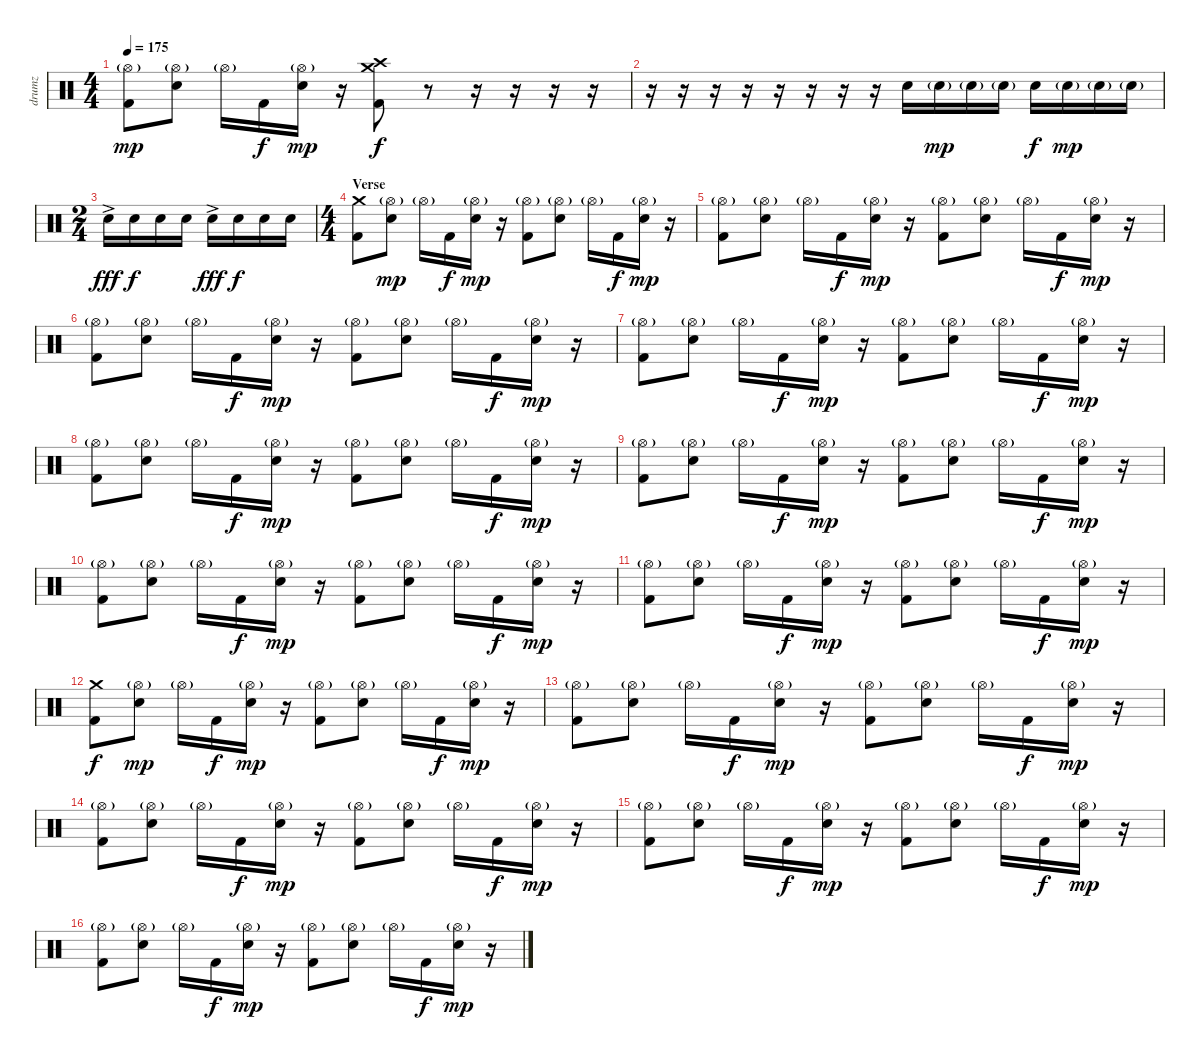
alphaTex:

\track ("drumz" "drumz") {instrument percussion}
\staff {score}
\articulation defaults
\ts (4 4)
\tempo 175
\clef neutral
\ks c
("Hi-Hat (open)"{g} "Kick (hit) 2").8{dy mp} ("Hi-Hat (open)"{g} "Electric Snare (hit)").8 "Hi-Hat (open)"{g}.16 "Kick (hit) 2".16{dy f} ("Hi-Hat (open)"{g} "Electric Snare (hit)").16{dy mp} r.16 ("Crash medium (hit)" "Crash high (hit)" "Kick (hit) 2").8{dy f} r.8 r.16 r.16 r.16 r.16 |
r.16 r.16 r.16 r.16 r.16 r.16 r.16 r.16 "Electric Snare (hit)".16 "Electric Snare (hit)"{g}.16{dy mp volume 10} "Electric Snare (hit)"{g}.16 "Electric Snare (hit)"{g}.16 "Electric Snare (hit)".16{dy f volume 16} "Electric Snare (hit)"{g}.16{dy mp volume 10} "Electric Snare (hit)"{g}.16 "Electric Snare (hit)"{g}.16 |
\ts (2 4)
"Electric Snare (hit)"{ac}.16{dy fff volume 16} "Electric Snare (hit)".16{dy f} "Electric Snare (hit)".16 "Electric Snare (hit)".16 "Electric Snare (hit)"{ac}.16{dy fff} "Electric Snare (hit)".16{dy f} "Electric Snare (hit)".16 "Electric Snare (hit)".16 |
\ts (4 4)
\section ("" "Verse")
("Crash medium (hit)" "Kick (hit) 2").8 ("Hi-Hat (open)"{g} "Electric Snare (hit)").8{dy mp} "Hi-Hat (open)"{g}.16 "Kick (hit) 2".16{dy f} ("Hi-Hat (open)"{g} "Electric Snare (hit)").16{dy mp} r.16 ("Hi-Hat (open)"{g} "Kick (hit) 2").8 ("Hi-Hat (open)"{g} "Electric Snare (hit)").8 "Hi-Hat (open)"{g}.16 "Kick (hit) 2".16{dy f} ("Hi-Hat (open)"{g} "Electric Snare (hit)").16{dy mp} r.16 |
("Hi-Hat (open)"{g} "Kick (hit) 2").8 ("Hi-Hat (open)"{g} "Electric Snare (hit)").8 "Hi-Hat (open)"{g}.16 "Kick (hit) 2".16{dy f} ("Hi-Hat (open)"{g} "Electric Snare (hit)").16{dy mp} r.16 ("Hi-Hat (open)"{g} "Kick (hit) 2").8 ("Hi-Hat (open)"{g} "Electric Snare (hit)").8 "Hi-Hat (open)"{g}.16 "Kick (hit) 2".16{dy f} ("Hi-Hat (open)"{g} "Electric Snare (hit)").16{dy mp} r.16 |
("Hi-Hat (open)"{g} "Kick (hit) 2").8 ("Hi-Hat (open)"{g} "Electric Snare (hit)").8 "Hi-Hat (open)"{g}.16 "Kick (hit) 2".16{dy f} ("Hi-Hat (open)"{g} "Electric Snare (hit)").16{dy mp} r.16 ("Hi-Hat (open)"{g} "Kick (hit) 2").8 ("Hi-Hat (open)"{g} "Electric Snare (hit)").8 "Hi-Hat (open)"{g}.16 "Kick (hit) 2".16{dy f} ("Hi-Hat (open)"{g} "Electric Snare (hit)").16{dy mp} r.16 |
("Hi-Hat (open)"{g} "Kick (hit) 2").8 ("Hi-Hat (open)"{g} "Electric Snare (hit)").8 "Hi-Hat (open)"{g}.16 "Kick (hit) 2".16{dy f} ("Hi-Hat (open)"{g} "Electric Snare (hit)").16{dy mp} r.16 ("Hi-Hat (open)"{g} "Kick (hit) 2").8 ("Hi-Hat (open)"{g} "Electric Snare (hit)").8 "Hi-Hat (open)"{g}.16 "Kick (hit) 2".16{dy f} ("Hi-Hat (open)"{g} "Electric Snare (hit)").16{dy mp} r.16 |
("Hi-Hat (open)"{g} "Kick (hit) 2").8 ("Hi-Hat (open)"{g} "Electric Snare (hit)").8 "Hi-Hat (open)"{g}.16 "Kick (hit) 2".16{dy f} ("Hi-Hat (open)"{g} "Electric Snare (hit)").16{dy mp} r.16 ("Hi-Hat (open)"{g} "Kick (hit) 2").8 ("Hi-Hat (open)"{g} "Electric Snare (hit)").8 "Hi-Hat (open)"{g}.16 "Kick (hit) 2".16{dy f} ("Hi-Hat (open)"{g} "Electric Snare (hit)").16{dy mp} r.16 |
("Hi-Hat (open)"{g} "Kick (hit) 2").8 ("Hi-Hat (open)"{g} "Electric Snare (hit)").8 "Hi-Hat (open)"{g}.16 "Kick (hit) 2".16{dy f} ("Hi-Hat (open)"{g} "Electric Snare (hit)").16{dy mp} r.16 ("Hi-Hat (open)"{g} "Kick (hit) 2").8 ("Hi-Hat (open)"{g} "Electric Snare (hit)").8 "Hi-Hat (open)"{g}.16 "Kick (hit) 2".16{dy f} ("Hi-Hat (open)"{g} "Electric Snare (hit)").16{dy mp} r.16 |
("Hi-Hat (open)"{g} "Kick (hit) 2").8 ("Hi-Hat (open)"{g} "Electric Snare (hit)").8 "Hi-Hat (open)"{g}.16 "Kick (hit) 2".16{dy f} ("Hi-Hat (open)"{g} "Electric Snare (hit)").16{dy mp} r.16 ("Hi-Hat (open)"{g} "Kick (hit) 2").8 ("Hi-Hat (open)"{g} "Electric Snare (hit)").8 "Hi-Hat (open)"{g}.16 "Kick (hit) 2".16{dy f} ("Hi-Hat (open)"{g} "Electric Snare (hit)").16{dy mp} r.16 |
("Hi-Hat (open)"{g} "Kick (hit) 2").8 ("Hi-Hat (open)"{g} "Electric Snare (hit)").8 "Hi-Hat (open)"{g}.16 "Kick (hit) 2".16{dy f} ("Hi-Hat (open)"{g} "Electric Snare (hit)").16{dy mp} r.16 ("Hi-Hat (open)"{g} "Kick (hit) 2").8 ("Hi-Hat (open)"{g} "Electric Snare (hit)").8 "Hi-Hat (open)"{g}.16 "Kick (hit) 2".16{dy f} ("Hi-Hat (open)"{g} "Electric Snare (hit)").16{dy mp} r.16 |
("Crash medium (hit)" "Kick (hit) 2").8{dy f} ("Hi-Hat (open)"{g} "Electric Snare (hit)").8{dy mp} "Hi-Hat (open)"{g}.16 "Kick (hit) 2".16{dy f} ("Hi-Hat (open)"{g} "Electric Snare (hit)").16{dy mp} r.16 ("Hi-Hat (open)"{g} "Kick (hit) 2").8 ("Hi-Hat (open)"{g} "Electric Snare (hit)").8 "Hi-Hat (open)"{g}.16 "Kick (hit) 2".16{dy f} ("Hi-Hat (open)"{g} "Electric Snare (hit)").16{dy mp} r.16 |
("Hi-Hat (open)"{g} "Kick (hit) 2").8 ("Hi-Hat (open)"{g} "Electric Snare (hit)").8 "Hi-Hat (open)"{g}.16 "Kick (hit) 2".16{dy f} ("Hi-Hat (open)"{g} "Electric Snare (hit)").16{dy mp} r.16 ("Hi-Hat (open)"{g} "Kick (hit) 2").8 ("Hi-Hat (open)"{g} "Electric Snare (hit)").8 "Hi-Hat (open)"{g}.16 "Kick (hit) 2".16{dy f} ("Hi-Hat (open)"{g} "Electric Snare (hit)").16{dy mp} r.16 |
("Hi-Hat (open)"{g} "Kick (hit) 2").8 ("Hi-Hat (open)"{g} "Electric Snare (hit)").8 "Hi-Hat (open)"{g}.16 "Kick (hit) 2".16{dy f} ("Hi-Hat (open)"{g} "Electric Snare (hit)").16{dy mp} r.16 ("Hi-Hat (open)"{g} "Kick (hit) 2").8 ("Hi-Hat (open)"{g} "Electric Snare (hit)").8 "Hi-Hat (open)"{g}.16 "Kick (hit) 2".16{dy f} ("Hi-Hat (open)"{g} "Electric Snare (hit)").16{dy mp} r.16 |
("Hi-Hat (open)"{g} "Kick (hit) 2").8 ("Hi-Hat (open)"{g} "Electric Snare (hit)").8 "Hi-Hat (open)"{g}.16 "Kick (hit) 2".16{dy f} ("Hi-Hat (open)"{g} "Electric Snare (hit)").16{dy mp} r.16 ("Hi-Hat (open)"{g} "Kick (hit) 2").8 ("Hi-Hat (open)"{g} "Electric Snare (hit)").8 "Hi-Hat (open)"{g}.16 "Kick (hit) 2".16{dy f} ("Hi-Hat (open)"{g} "Electric Snare (hit)").16{dy mp} r.16 |
("Hi-Hat (open)"{g} "Kick (hit) 2").8 ("Hi-Hat (open)"{g} "Electric Snare (hit)").8 "Hi-Hat (open)"{g}.16 "Kick (hit) 2".16{dy f} ("Hi-Hat (open)"{g} "Electric Snare (hit)").16{dy mp} r.16 ("Hi-Hat (open)"{g} "Kick (hit) 2").8 ("Hi-Hat (open)"{g} "Electric Snare (hit)").8 "Hi-Hat (open)"{g}.16 "Kick (hit) 2".16{dy f} ("Hi-Hat (open)"{g} "Electric Snare (hit)").16{dy mp} r.16
